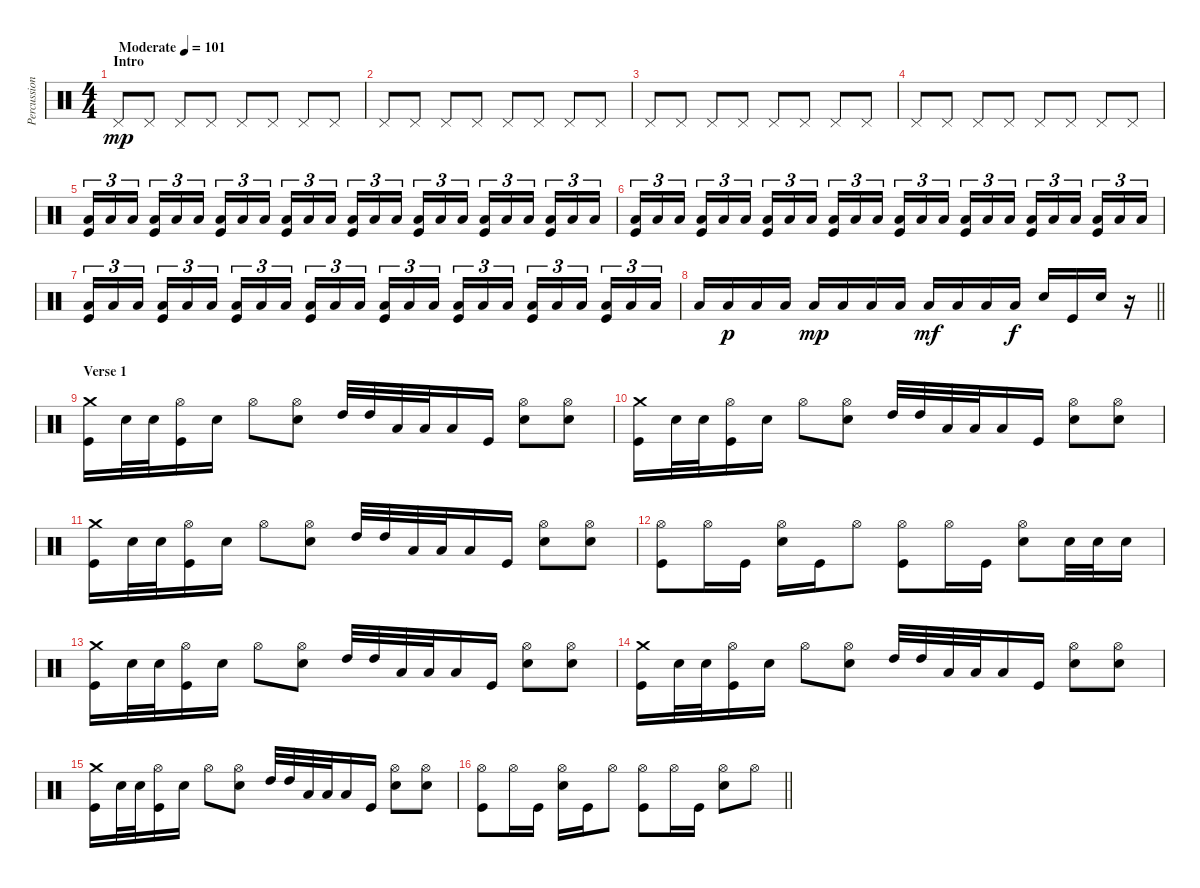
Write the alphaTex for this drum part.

\track ("Percussion" "Percussion") {instrument percussion}
\staff {score}
\articulation defaults
\ts (4 4)
\section ("" "Intro")
\tempo (101 "Moderate")
\clef neutral
\ks c "Pedal Hi-Hat (hit)".8{dy mp} "Pedal Hi-Hat (hit)".8 "Pedal Hi-Hat (hit)".8 "Pedal Hi-Hat (hit)".8 "Pedal Hi-Hat (hit)".8 "Pedal Hi-Hat (hit)".8 "Pedal Hi-Hat (hit)".8 "Pedal Hi-Hat (hit)".8
|
"Pedal Hi-Hat (hit)".8 "Pedal Hi-Hat (hit)".8 "Pedal Hi-Hat (hit)".8 "Pedal Hi-Hat (hit)".8 "Pedal Hi-Hat (hit)".8 "Pedal Hi-Hat (hit)".8 "Pedal Hi-Hat (hit)".8 "Pedal Hi-Hat (hit)".8 |
"Pedal Hi-Hat (hit)".8 "Pedal Hi-Hat (hit)".8 "Pedal Hi-Hat (hit)".8 "Pedal Hi-Hat (hit)".8 "Pedal Hi-Hat (hit)".8 "Pedal Hi-Hat (hit)".8 "Pedal Hi-Hat (hit)".8 "Pedal Hi-Hat (hit)".8 |
"Pedal Hi-Hat (hit)".8 "Pedal Hi-Hat (hit)".8 "Pedal Hi-Hat (hit)".8 "Pedal Hi-Hat (hit)".8 "Pedal Hi-Hat (hit)".8 "Pedal Hi-Hat (hit)".8 "Pedal Hi-Hat (hit)".8 "Pedal Hi-Hat (hit)".8 |
("Low Floor Tom (hit)" "Kick (hit)").16{tu (3 2)} "Low Floor Tom (hit)".16{tu (3 2)} "Low Floor Tom (hit)".16{tu (3 2) beam splitsecondary} ("Low Floor Tom (hit)" "Kick (hit)").16{tu (3 2)} "Low Floor Tom (hit)".16{tu (3 2)} "Low Floor Tom (hit)".16{tu (3 2)} ("Low Floor Tom (hit)" "Kick (hit)").16{tu (3 2)} "Low Floor Tom (hit)".16{tu (3 2)} "Low Floor Tom (hit)".16{tu (3 2) beam splitsecondary} ("Low Floor Tom (hit)" "Kick (hit)").16{tu (3 2)} "Low Floor Tom (hit)".16{tu (3 2)} "Low Floor Tom (hit)".16{tu (3 2)} ("Low Floor Tom (hit)" "Kick (hit)").16{tu (3 2)} "Low Floor Tom (hit)".16{tu (3 2)} "Low Floor Tom (hit)".16{tu (3 2) beam splitsecondary} ("Low Floor Tom (hit)" "Kick (hit)").16{tu (3 2)} "Low Floor Tom (hit)".16{tu (3 2)} "Low Floor Tom (hit)".16{tu (3 2)} ("Low Floor Tom (hit)" "Kick (hit)").16{tu (3 2)} "Low Floor Tom (hit)".16{tu (3 2)} "Low Floor Tom (hit)".16{tu (3 2) beam splitsecondary} ("Low Floor Tom (hit)" "Kick (hit)").16{tu (3 2)} "Low Floor Tom (hit)".16{tu (3 2)} "Low Floor Tom (hit)".16{tu (3 2)} |
("Low Floor Tom (hit)" "Kick (hit)").16{tu (3 2)} "Low Floor Tom (hit)".16{tu (3 2)} "Low Floor Tom (hit)".16{tu (3 2) beam splitsecondary} ("Low Floor Tom (hit)" "Kick (hit)").16{tu (3 2)} "Low Floor Tom (hit)".16{tu (3 2)} "Low Floor Tom (hit)".16{tu (3 2)} ("Low Floor Tom (hit)" "Kick (hit)").16{tu (3 2)} "Low Floor Tom (hit)".16{tu (3 2)} "Low Floor Tom (hit)".16{tu (3 2) beam splitsecondary} ("Low Floor Tom (hit)" "Kick (hit)").16{tu (3 2)} "Low Floor Tom (hit)".16{tu (3 2)} "Low Floor Tom (hit)".16{tu (3 2)} ("Low Floor Tom (hit)" "Kick (hit)").16{tu (3 2)} "Low Floor Tom (hit)".16{tu (3 2)} "Low Floor Tom (hit)".16{tu (3 2) beam splitsecondary} ("Low Floor Tom (hit)" "Kick (hit)").16{tu (3 2)} "Low Floor Tom (hit)".16{tu (3 2)} "Low Floor Tom (hit)".16{tu (3 2)} ("Low Floor Tom (hit)" "Kick (hit)").16{tu (3 2)} "Low Floor Tom (hit)".16{tu (3 2)} "Low Floor Tom (hit)".16{tu (3 2) beam splitsecondary} ("Low Floor Tom (hit)" "Kick (hit)").16{tu (3 2)} "Low Floor Tom (hit)".16{tu (3 2)} "Low Floor Tom (hit)".16{tu (3 2)} |
("Low Floor Tom (hit)" "Kick (hit)").16{tu (3 2)} "Low Floor Tom (hit)".16{tu (3 2)} "Low Floor Tom (hit)".16{tu (3 2) beam splitsecondary} ("Low Floor Tom (hit)" "Kick (hit)").16{tu (3 2)} "Low Floor Tom (hit)".16{tu (3 2)} "Low Floor Tom (hit)".16{tu (3 2)} ("Low Floor Tom (hit)" "Kick (hit)").16{tu (3 2)} "Low Floor Tom (hit)".16{tu (3 2)} "Low Floor Tom (hit)".16{tu (3 2) beam splitsecondary} ("Low Floor Tom (hit)" "Kick (hit)").16{tu (3 2)} "Low Floor Tom (hit)".16{tu (3 2)} "Low Floor Tom (hit)".16{tu (3 2)} ("Low Floor Tom (hit)" "Kick (hit)").16{tu (3 2)} "Low Floor Tom (hit)".16{tu (3 2)} "Low Floor Tom (hit)".16{tu (3 2) beam splitsecondary} ("Low Floor Tom (hit)" "Kick (hit)").16{tu (3 2)} "Low Floor Tom (hit)".16{tu (3 2)} "Low Floor Tom (hit)".16{tu (3 2)} ("Low Floor Tom (hit)" "Kick (hit)").16{tu (3 2)} "Low Floor Tom (hit)".16{tu (3 2)} "Low Floor Tom (hit)".16{tu (3 2) beam splitsecondary} ("Low Floor Tom (hit)" "Kick (hit)").16{tu (3 2)} "Low Floor Tom (hit)".16{tu (3 2)} "Low Floor Tom (hit)".16{tu (3 2)} |
\barLineRight lightlight "Low Floor Tom (hit)".16 "Low Floor Tom (hit)".16{dy p} "Low Floor Tom (hit)".16 "Low Floor Tom (hit)".16 "Low Floor Tom (hit)".16{dy mp} "Low Floor Tom (hit)".16 "Low Floor Tom (hit)".16 "Low Floor Tom (hit)".16 "Low Floor Tom (hit)".16{dy mf} "Low Floor Tom (hit)".16 "Low Floor Tom (hit)".16 "Low Floor Tom (hit)".16{dy f} "Snare (hit) 2".16 "Kick (hit)".16 "Snare (hit) 2".16
r.16 |
\section ("" "Verse 1")
("Crash medium (hit)" "Kick (hit)").16 "Snare (hit) 2".32 "Snare (hit) 2".32 ("Hi-Hat (open)" "Kick (hit)").16 "Snare (hit) 2".16 "Hi-Hat (open)".8 ("Hi-Hat (open)" "Snare (hit) 2").8 "High Tom (hit)".32 "High Tom (hit)".32 "Low Tom (hit)".32 "Low Tom (hit)".32 "Low Tom (hit)".16 "Kick (hit)".16 ("Hi-Hat (open)" "Snare (hit) 2").8 ("Hi-Hat (open)" "Snare (hit) 2").8 |
("Crash medium (hit)" "Kick (hit)").16 "Snare (hit) 2".32 "Snare (hit) 2".32 ("Hi-Hat (open)" "Kick (hit)").16 "Snare (hit) 2".16 "Hi-Hat (open)".8 ("Hi-Hat (open)" "Snare (hit) 2").8 "High Tom (hit)".32 "High Tom (hit)".32 "Low Tom (hit)".32 "Low Tom (hit)".32 "Low Tom (hit)".16 "Kick (hit)".16 ("Hi-Hat (open)" "Snare (hit) 2").8 ("Hi-Hat (open)" "Snare (hit) 2").8 |
("Crash medium (hit)" "Kick (hit)").16 "Snare (hit) 2".32 "Snare (hit) 2".32 ("Hi-Hat (open)" "Kick (hit)").16 "Snare (hit) 2".16 "Hi-Hat (open)".8 ("Hi-Hat (open)" "Snare (hit) 2").8 "High Tom (hit)".32 "High Tom (hit)".32 "Low Tom (hit)".32 "Low Tom (hit)".32 "Low Tom (hit)".16 "Kick (hit)".16 ("Hi-Hat (open)" "Snare (hit) 2").8 ("Hi-Hat (open)" "Snare (hit) 2").8 |
("Hi-Hat (open)" "Kick (hit)").8 "Hi-Hat (open)".16 "Kick (hit)".16 ("Hi-Hat (open)" "Snare (hit) 2").16 "Kick (hit)".16 "Hi-Hat (open)".8 ("Hi-Hat (open)" "Kick (hit)").8 "Hi-Hat (open)".16 "Kick (hit)".16 ("Hi-Hat (open)" "Snare (hit) 2").8 "Snare (hit) 2".32 "Snare (hit) 2".32 "Snare (hit) 2".16 |
("Crash medium (hit)" "Kick (hit)").16 "Snare (hit) 2".32 "Snare (hit) 2".32 ("Hi-Hat (open)" "Kick (hit)").16 "Snare (hit) 2".16 "Hi-Hat (open)".8 ("Hi-Hat (open)" "Snare (hit) 2").8 "High Tom (hit)".32 "High Tom (hit)".32 "Low Tom (hit)".32 "Low Tom (hit)".32 "Low Tom (hit)".16 "Kick (hit)".16 ("Hi-Hat (open)" "Snare (hit) 2").8 ("Hi-Hat (open)" "Snare (hit) 2").8 |
("Crash medium (hit)" "Kick (hit)").16 "Snare (hit) 2".32 "Snare (hit) 2".32 ("Hi-Hat (open)" "Kick (hit)").16 "Snare (hit) 2".16 "Hi-Hat (open)".8 ("Hi-Hat (open)" "Snare (hit) 2").8 "High Tom (hit)".32 "High Tom (hit)".32 "Low Tom (hit)".32 "Low Tom (hit)".32 "Low Tom (hit)".16 "Kick (hit)".16 ("Hi-Hat (open)" "Snare (hit) 2").8 ("Hi-Hat (open)" "Snare (hit) 2").8 |
("Crash medium (hit)" "Kick (hit)").16 "Snare (hit) 2".32 "Snare (hit) 2".32 ("Hi-Hat (open)" "Kick (hit)").16 "Snare (hit) 2".16 "Hi-Hat (open)".8 ("Hi-Hat (open)" "Snare (hit) 2").8 "High Tom (hit)".32 "High Tom (hit)".32 "Low Tom (hit)".32 "Low Tom (hit)".32 "Low Tom (hit)".16 "Kick (hit)".16 ("Hi-Hat (open)" "Snare (hit) 2").8 ("Hi-Hat (open)" "Snare (hit) 2").8 |
\barLineRight lightlight
("Hi-Hat (open)" "Kick (hit)").8 "Hi-Hat (open)".16 "Kick (hit)".16 ("Hi-Hat (open)" "Snare (hit) 2").16 "Kick (hit)".16 "Hi-Hat (open)".8 ("Hi-Hat (open)" "Kick (hit)").8 "Hi-Hat (open)".16 "Kick (hit)".16 ("Hi-Hat (open)" "Snare (hit) 2").8 "Hi-Hat (open)".8
